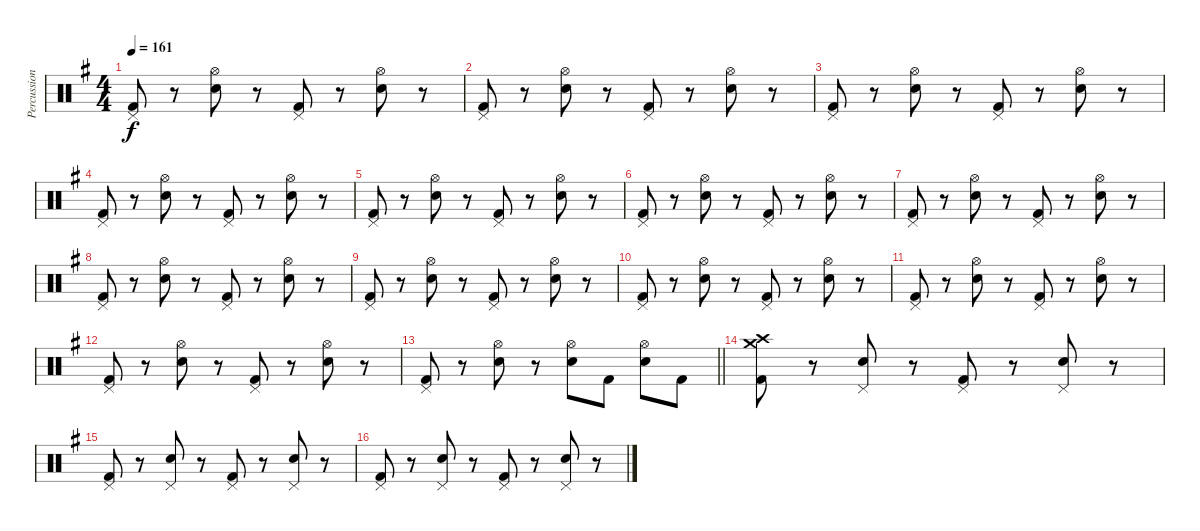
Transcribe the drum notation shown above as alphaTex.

\track ("Percussion" "Percussion") {instrument percussion}
\staff {score}
\articulation defaults
\ts (4 4)
\tempo 161
\clef neutral
\ks g
("Pedal Hi-Hat (hit)" "Kick (hit) 2").8{dy f} r.8 ("Hi-Hat (open)" "Electric Snare (hit)").8 r.8 ("Pedal Hi-Hat (hit)" "Kick (hit) 2").8 r.8 ("Hi-Hat (open)" "Electric Snare (hit)").8 r.8 |
("Pedal Hi-Hat (hit)" "Kick (hit) 2").8 r.8 ("Hi-Hat (open)" "Electric Snare (hit)").8 r.8 ("Pedal Hi-Hat (hit)" "Kick (hit) 2").8 r.8 ("Hi-Hat (open)" "Electric Snare (hit)").8 r.8 |
("Pedal Hi-Hat (hit)" "Kick (hit) 2").8 r.8 ("Hi-Hat (open)" "Electric Snare (hit)").8 r.8 ("Pedal Hi-Hat (hit)" "Kick (hit) 2").8 r.8 ("Hi-Hat (open)" "Electric Snare (hit)").8 r.8 |
("Pedal Hi-Hat (hit)" "Kick (hit) 2").8 r.8 ("Hi-Hat (open)" "Electric Snare (hit)").8 r.8 ("Pedal Hi-Hat (hit)" "Kick (hit) 2").8 r.8 ("Hi-Hat (open)" "Electric Snare (hit)").8 r.8 |
("Pedal Hi-Hat (hit)" "Kick (hit) 2").8 r.8 ("Hi-Hat (open)" "Electric Snare (hit)").8 r.8 ("Pedal Hi-Hat (hit)" "Kick (hit) 2").8 r.8 ("Hi-Hat (open)" "Electric Snare (hit)").8 r.8 |
("Pedal Hi-Hat (hit)" "Kick (hit) 2").8 r.8 ("Hi-Hat (open)" "Electric Snare (hit)").8 r.8 ("Pedal Hi-Hat (hit)" "Kick (hit) 2").8 r.8 ("Hi-Hat (open)" "Electric Snare (hit)").8 r.8 |
("Pedal Hi-Hat (hit)" "Kick (hit) 2").8 r.8 ("Hi-Hat (open)" "Electric Snare (hit)").8 r.8 ("Pedal Hi-Hat (hit)" "Kick (hit) 2").8 r.8 ("Hi-Hat (open)" "Electric Snare (hit)").8 r.8 |
("Pedal Hi-Hat (hit)" "Kick (hit) 2").8 r.8 ("Hi-Hat (open)" "Electric Snare (hit)").8 r.8 ("Pedal Hi-Hat (hit)" "Kick (hit) 2").8 r.8 ("Hi-Hat (open)" "Electric Snare (hit)").8 r.8 |
("Pedal Hi-Hat (hit)" "Kick (hit) 2").8 r.8 ("Hi-Hat (open)" "Electric Snare (hit)").8 r.8 ("Pedal Hi-Hat (hit)" "Kick (hit) 2").8 r.8 ("Hi-Hat (open)" "Electric Snare (hit)").8 r.8 |
("Pedal Hi-Hat (hit)" "Kick (hit) 2").8 r.8 ("Hi-Hat (open)" "Electric Snare (hit)").8 r.8 ("Pedal Hi-Hat (hit)" "Kick (hit) 2").8 r.8 ("Hi-Hat (open)" "Electric Snare (hit)").8 r.8 |
("Pedal Hi-Hat (hit)" "Kick (hit) 2").8 r.8 ("Hi-Hat (open)" "Electric Snare (hit)").8 r.8 ("Pedal Hi-Hat (hit)" "Kick (hit) 2").8 r.8 ("Hi-Hat (open)" "Electric Snare (hit)").8 r.8 |
("Pedal Hi-Hat (hit)" "Kick (hit) 2").8 r.8 ("Hi-Hat (open)" "Electric Snare (hit)").8 r.8 ("Pedal Hi-Hat (hit)" "Kick (hit) 2").8 r.8 ("Hi-Hat (open)" "Electric Snare (hit)").8 r.8 |
\barLineRight lightlight
("Pedal Hi-Hat (hit)" "Kick (hit) 2").8 r.8 ("Hi-Hat (open)" "Electric Snare (hit)").8 r.8 ("Hi-Hat (open)" "Electric Snare (hit)").8 "Kick (hit) 2".8 ("Hi-Hat (open)" "Electric Snare (hit)").8 "Kick (hit) 2".8 |
("Crash high (hit)" "Crash medium (hit)" "Kick (hit) 2").8 r.8 ("Pedal Hi-Hat (hit)" "Electric Snare (hit)").8 r.8 ("Pedal Hi-Hat (hit)" "Kick (hit) 2").8 r.8 ("Pedal Hi-Hat (hit)" "Electric Snare (hit)").8 r.8 |
("Pedal Hi-Hat (hit)" "Kick (hit) 2").8 r.8 ("Pedal Hi-Hat (hit)" "Electric Snare (hit)").8 r.8 ("Pedal Hi-Hat (hit)" "Kick (hit) 2").8 r.8 ("Pedal Hi-Hat (hit)" "Electric Snare (hit)").8 r.8 |
("Pedal Hi-Hat (hit)" "Kick (hit) 2").8 r.8 ("Pedal Hi-Hat (hit)" "Electric Snare (hit)").8 r.8 ("Pedal Hi-Hat (hit)" "Kick (hit) 2").8 r.8 ("Pedal Hi-Hat (hit)" "Electric Snare (hit)").8 r.8
